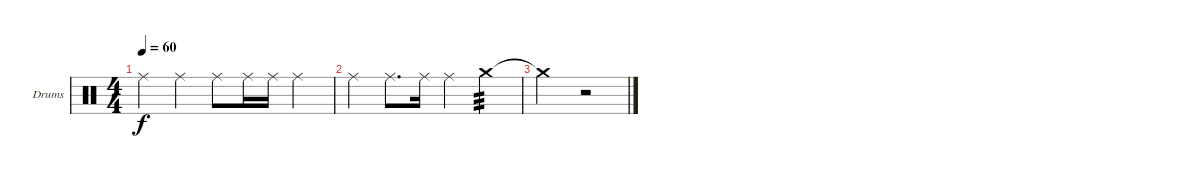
\defaultSystemsLayout 4
\bracketExtendMode groupsimilarinstruments
\firstSystemTrackNameOrientation horizontal
\otherSystemsTrackNameOrientation horizontal
\track ("Drumkit" "Drums") {instrument percussion}
\staff {score}
\articulation defaults
\ts (4 4)
\tempo 60
\clef neutral
\scale
0.333333
\ks c "Ride (middle)".4{dy f} "Ride (middle)".4 "Ride (middle)".8 "Ride (middle)".16 "Ride (middle)".16 "Ride (middle)".4
|
"Ride (middle)".4 "Ride (middle)".8{d} "Ride (middle)".16 "Ride (middle)".4 "Crash medium (hit)".4{tp 3} |
"Crash medium (hit)"{t}.2 r.2
